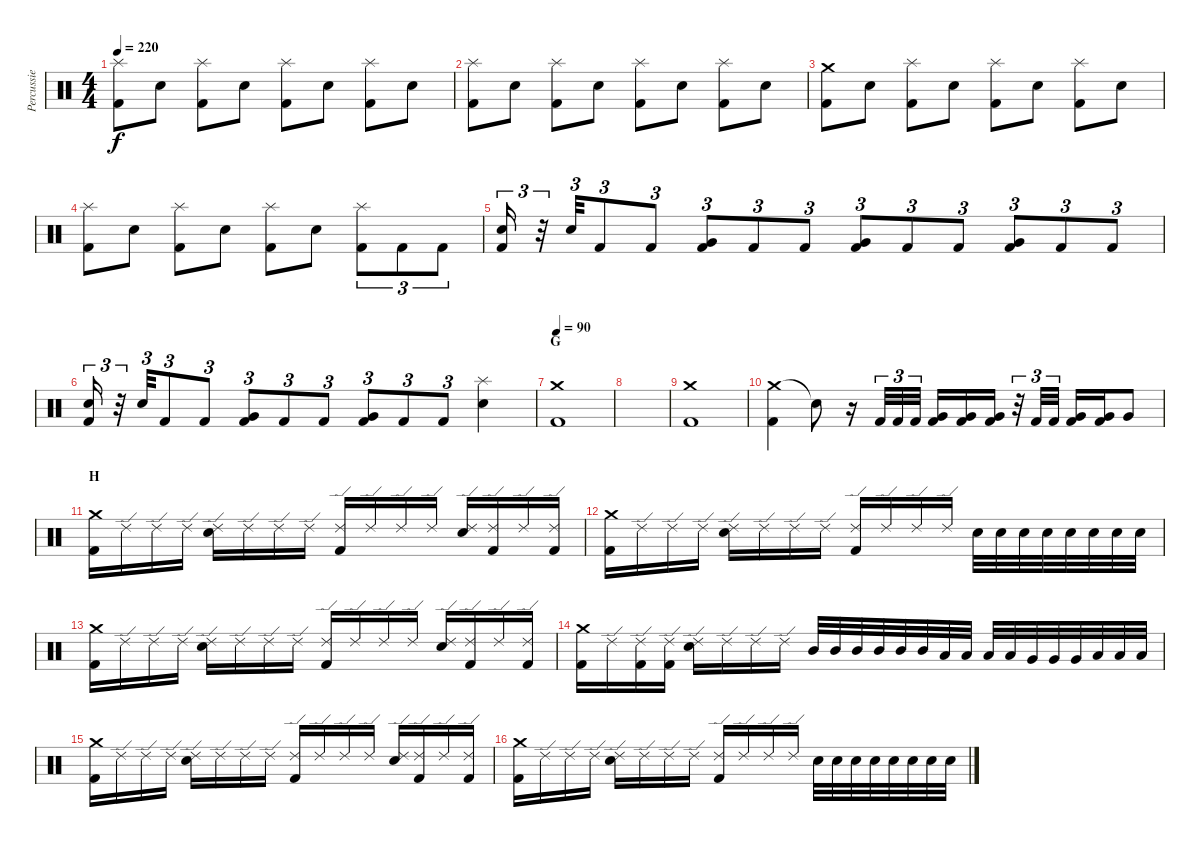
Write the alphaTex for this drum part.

\track ("Percussie" "Percussie") {instrument percussion}
\staff {score}
\articulation defaults
\ts (4 4)
\tempo 220
\clef neutral
\ks c
("Splash (hit)" "Kick (hit) 2").8{dy f} "Electric Snare (hit)".8 ("Splash (hit)" "Kick (hit) 2").8 "Electric Snare (hit)".8 ("Splash (hit)" "Kick (hit) 2").8 "Electric Snare (hit)".8 ("Splash (hit)" "Kick (hit) 2").8 "Electric Snare (hit)".8 |
("Splash (hit)" "Kick (hit) 2").8 "Electric Snare (hit)".8 ("Splash (hit)" "Kick (hit) 2").8 "Electric Snare (hit)".8 ("Splash (hit)" "Kick (hit) 2").8 "Electric Snare (hit)".8 ("Splash (hit)" "Kick (hit) 2").8 "Electric Snare (hit)".8 |
("Crash medium (hit)" "Kick (hit) 2").8 "Electric Snare (hit)".8 ("Splash (hit)" "Kick (hit) 2").8 "Electric Snare (hit)".8 ("Splash (hit)" "Kick (hit) 2").8 "Electric Snare (hit)".8 ("Splash (hit)" "Kick (hit) 2").8 "Electric Snare (hit)".8 |
("Splash (hit)" "Kick (hit) 2").8 "Electric Snare (hit)".8 ("Splash (hit)" "Kick (hit) 2").8 "Electric Snare (hit)".8 ("Splash (hit)" "Kick (hit) 2").8 "Electric Snare (hit)".8 ("Splash (hit)" "Kick (hit) 2").8{tu (3 2)} "Kick (hit) 2".8{tu (3 2)} "Kick (hit) 2".8{tu (3 2)} |
("Electric Snare (hit)" "Kick (hit) 2").16{tu (3 2)} r.32{tu (3 2)} "Electric Snare (hit)".32{tu (3 2)} "Kick (hit) 2".8{tu (3 2)} "Kick (hit) 2".8{tu (3 2)} ("Very Low Tom (hit)" "Kick (hit) 2").8{tu (3 2)} "Kick (hit) 2".8{tu (3 2)} "Kick (hit) 2".8{tu (3 2)} ("Very Low Tom (hit)" "Kick (hit) 2").8{tu (3 2)} "Kick (hit) 2".8{tu (3 2)} "Kick (hit) 2".8{tu (3 2)} ("Very Low Tom (hit)" "Kick (hit) 2").8{tu (3 2)} "Kick (hit) 2".8{tu (3 2)} "Kick (hit) 2".8{tu (3 2)} |
("Electric Snare (hit)" "Kick (hit) 2").16{tu (3 2)} r.32{tu (3 2)} "Electric Snare (hit)".32{tu (3 2)} "Kick (hit) 2".8{tu (3 2)} "Kick (hit) 2".8{tu (3 2)} ("Very Low Tom (hit)" "Kick (hit) 2").8{tu (3 2)} "Kick (hit) 2".8{tu (3 2)} "Kick (hit) 2".8{tu (3 2)} ("Very Low Tom (hit)" "Kick (hit) 2").8{tu (3 2)} "Kick (hit) 2".8{tu (3 2)} "Kick (hit) 2".8{tu (3 2)} ("Splash (hit)" "Electric Snare (hit)").4 |
\section ("" "G")
\tempo 90
("Crash medium (hit)" "Kick (hit) 2").1 |
|
("Crash medium (hit)" "Kick (hit) 2").1 |
("Crash medium (hit)" "Kick (hit) 2").4 "Snare (hit)"{t}.8 r.16 "Kick (hit) 2".32{tu (3 2)} "Kick (hit) 2".32{tu (3 2)} "Kick (hit) 2".32{tu (3 2)} ("Very Low Tom (hit)" "Kick (hit) 2").16 ("Very Low Tom (hit)" "Kick (hit) 2").16 ("Very Low Tom (hit)" "Kick (hit) 2").16 r.32{tu (3 2)} "Kick (hit) 2".32{tu (3 2)} "Kick (hit) 2".32{tu (3 2)} ("Very Low Tom (hit)" "Kick (hit) 2").16 ("Very Low Tom (hit)" "Kick (hit) 2").16 "Very Low Tom (hit)".8 |
\section ("" "H")
("Crash medium (hit)" "Kick (hit) 2").16 "Ride (edge) 2".16 "Ride (edge) 2".16 "Ride (edge) 2".16 ("Ride (edge) 2" "Electric Snare (hit)").16 "Ride (edge) 2".16 "Ride (edge) 2".16 "Ride (edge) 2".16 ("Ride (edge) 2" "Kick (hit) 2").16 "Ride (edge) 2".16 "Ride (edge) 2".16 "Ride (edge) 2".16 ("Ride (edge) 2" "Electric Snare (hit)").16 ("Ride (edge) 2" "Kick (hit) 2").16 "Ride (edge) 2".16 ("Ride (edge) 2" "Kick (hit) 2").16 |
("Crash medium (hit)" "Kick (hit) 2").16 "Ride (edge) 2".16 "Ride (edge) 2".16 "Ride (edge) 2".16 ("Ride (edge) 2" "Electric Snare (hit)").16 "Ride (edge) 2".16 "Ride (edge) 2".16 "Ride (edge) 2".16 ("Ride (edge) 2" "Kick (hit) 2").16 "Ride (edge) 2".16 "Ride (edge) 2".16 "Ride (edge) 2".16 "Electric Snare (hit)".32 "Electric Snare (hit)".32 "Electric Snare (hit)".32 "Electric Snare (hit)".32 "Electric Snare (hit)".32 "Electric Snare (hit)".32 "Electric Snare (hit)".32 "Electric Snare (hit)".32 |
("Crash medium (hit)" "Kick (hit) 2").16 "Ride (edge) 2".16 "Ride (edge) 2".16 "Ride (edge) 2".16 ("Ride (edge) 2" "Electric Snare (hit)").16 "Ride (edge) 2".16 "Ride (edge) 2".16 "Ride (edge) 2".16 ("Ride (edge) 2" "Kick (hit) 2").16 "Ride (edge) 2".16 "Ride (edge) 2".16 "Ride (edge) 2".16 ("Ride (edge) 2" "Electric Snare (hit)").16 ("Ride (edge) 2" "Kick (hit) 2").16 "Ride (edge) 2".16 ("Ride (edge) 2" "Kick (hit) 2").16 |
("Crash medium (hit)" "Kick (hit) 2").16 "Ride (edge) 2".16 ("Ride (edge) 2" "Kick (hit) 2").16 ("Ride (edge) 2" "Kick (hit) 2").16 ("Ride (edge) 2" "Electric Snare (hit)").16 "Ride (edge) 2".16 "Ride (edge) 2".16 "Ride (edge) 2".16 "Mid Tom (hit)".32 "Mid Tom (hit)".32 "Mid Tom (hit)".32 "Mid Tom (hit)".32 "Mid Tom (hit)".32 "Mid Tom (hit)".32 "Low Tom (hit)".32 "Low Tom (hit)".32 "Low Tom (hit)".32 "Low Tom (hit)".32 "Very Low Tom (hit)".32 "Very Low Tom (hit)".32 "Very Low Tom (hit)".32 "Low Floor Tom (hit)".32 "Low Floor Tom (hit)".32 "Low Floor Tom (hit)".32 |
("Crash medium (hit)" "Kick (hit) 2").16 "Ride (edge) 2".16 "Ride (edge) 2".16 "Ride (edge) 2".16 ("Ride (edge) 2" "Electric Snare (hit)").16 "Ride (edge) 2".16 "Ride (edge) 2".16 "Ride (edge) 2".16 ("Ride (edge) 2" "Kick (hit) 2").16 "Ride (edge) 2".16 "Ride (edge) 2".16 "Ride (edge) 2".16 ("Ride (edge) 2" "Electric Snare (hit)").16 ("Ride (edge) 2" "Kick (hit) 2").16 "Ride (edge) 2".16 ("Ride (edge) 2" "Kick (hit) 2").16 |
("Crash medium (hit)" "Kick (hit) 2").16 "Ride (edge) 2".16 "Ride (edge) 2".16 "Ride (edge) 2".16 ("Ride (edge) 2" "Electric Snare (hit)").16 "Ride (edge) 2".16 "Ride (edge) 2".16 "Ride (edge) 2".16 ("Ride (edge) 2" "Kick (hit) 2").16 "Ride (edge) 2".16 "Ride (edge) 2".16 "Ride (edge) 2".16 "Electric Snare (hit)".32 "Electric Snare (hit)".32 "Electric Snare (hit)".32 "Electric Snare (hit)".32 "Electric Snare (hit)".32 "Electric Snare (hit)".32 "Electric Snare (hit)".32 "Electric Snare (hit)".32
